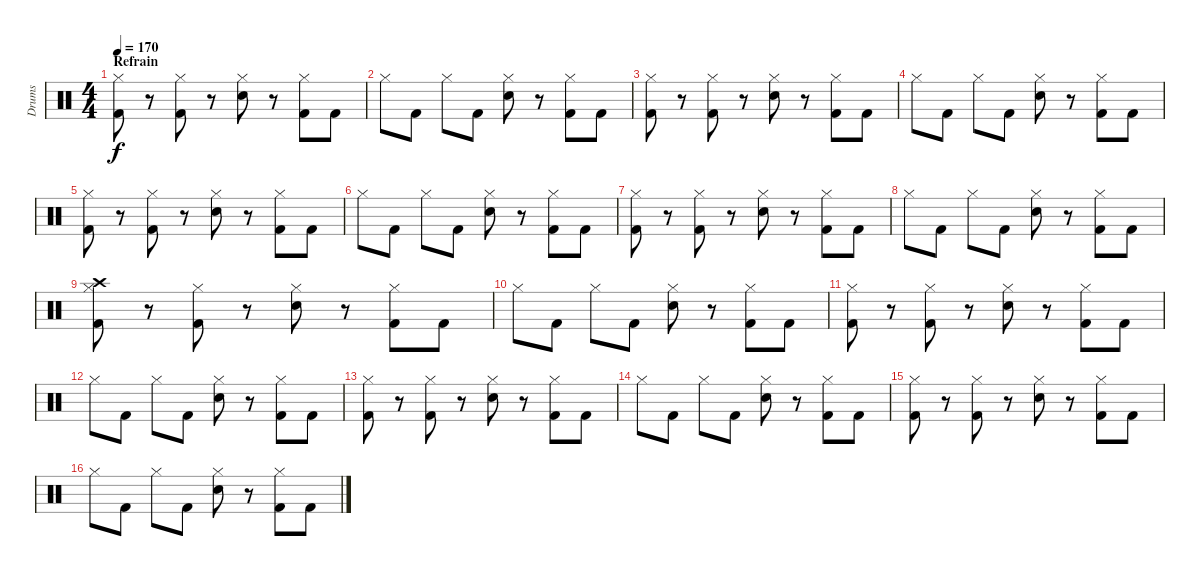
\track ("Drums" "Drums") {instrument percussion}
\staff {score}
\articulation defaults
\ts (4 4)
\section ("" "Refrain")
\tempo 170
\clef neutral
\ks c
("Hi-Hat (closed)" "Kick (hit) 2").8{dy f} r.8 ("Hi-Hat (closed)" "Kick (hit) 2").8 r.8 ("Hi-Hat (closed)" "Electric Snare (hit)").8 r.8 ("Hi-Hat (closed)" "Kick (hit) 2").8 "Kick (hit) 2".8 |
"Hi-Hat (closed)".8 "Kick (hit) 2".8 "Hi-Hat (closed)".8 "Kick (hit) 2".8 ("Hi-Hat (closed)" "Electric Snare (hit)").8 r.8 ("Hi-Hat (closed)" "Kick (hit) 2").8 "Kick (hit) 2".8 |
("Hi-Hat (closed)" "Kick (hit) 2").8 r.8 ("Hi-Hat (closed)" "Kick (hit) 2").8 r.8 ("Hi-Hat (closed)" "Electric Snare (hit)").8 r.8 ("Hi-Hat (closed)" "Kick (hit) 2").8 "Kick (hit) 2".8 |
"Hi-Hat (closed)".8 "Kick (hit) 2".8 "Hi-Hat (closed)".8 "Kick (hit) 2".8 ("Hi-Hat (closed)" "Electric Snare (hit)").8 r.8 ("Hi-Hat (closed)" "Kick (hit) 2").8 "Kick (hit) 2".8 |
("Hi-Hat (closed)" "Kick (hit) 2").8 r.8 ("Hi-Hat (closed)" "Kick (hit) 2").8 r.8 ("Hi-Hat (closed)" "Electric Snare (hit)").8 r.8 ("Hi-Hat (closed)" "Kick (hit) 2").8 "Kick (hit) 2".8 |
"Hi-Hat (closed)".8 "Kick (hit) 2".8 "Hi-Hat (closed)".8 "Kick (hit) 2".8 ("Hi-Hat (closed)" "Electric Snare (hit)").8 r.8 ("Hi-Hat (closed)" "Kick (hit) 2").8 "Kick (hit) 2".8 |
("Hi-Hat (closed)" "Kick (hit) 2").8 r.8 ("Hi-Hat (closed)" "Kick (hit) 2").8 r.8 ("Hi-Hat (closed)" "Electric Snare (hit)").8 r.8 ("Hi-Hat (closed)" "Kick (hit) 2").8 "Kick (hit) 2".8 |
"Hi-Hat (closed)".8 "Kick (hit) 2".8 "Hi-Hat (closed)".8 "Kick (hit) 2".8 ("Hi-Hat (closed)" "Electric Snare (hit)").8 r.8 ("Hi-Hat (closed)" "Kick (hit) 2").8 "Kick (hit) 2".8 |
("Hi-Hat (closed)" "Crash high (hit)" "Kick (hit) 2").8 r.8 ("Hi-Hat (closed)" "Kick (hit) 2").8 r.8 ("Hi-Hat (closed)" "Electric Snare (hit)").8 r.8 ("Hi-Hat (closed)" "Kick (hit) 2").8 "Kick (hit) 2".8 |
"Hi-Hat (closed)".8 "Kick (hit) 2".8 "Hi-Hat (closed)".8 "Kick (hit) 2".8 ("Hi-Hat (closed)" "Electric Snare (hit)").8 r.8 ("Hi-Hat (closed)" "Kick (hit) 2").8 "Kick (hit) 2".8 |
("Hi-Hat (closed)" "Kick (hit) 2").8 r.8 ("Hi-Hat (closed)" "Kick (hit) 2").8 r.8 ("Hi-Hat (closed)" "Electric Snare (hit)").8 r.8 ("Hi-Hat (closed)" "Kick (hit) 2").8 "Kick (hit) 2".8 |
"Hi-Hat (closed)".8 "Kick (hit) 2".8 "Hi-Hat (closed)".8 "Kick (hit) 2".8 ("Hi-Hat (closed)" "Electric Snare (hit)").8 r.8 ("Hi-Hat (closed)" "Kick (hit) 2").8 "Kick (hit) 2".8 |
("Hi-Hat (closed)" "Kick (hit) 2").8 r.8 ("Hi-Hat (closed)" "Kick (hit) 2").8 r.8 ("Hi-Hat (closed)" "Electric Snare (hit)").8 r.8 ("Hi-Hat (closed)" "Kick (hit) 2").8 "Kick (hit) 2".8 |
"Hi-Hat (closed)".8 "Kick (hit) 2".8 "Hi-Hat (closed)".8 "Kick (hit) 2".8 ("Hi-Hat (closed)" "Electric Snare (hit)").8 r.8 ("Hi-Hat (closed)" "Kick (hit) 2").8 "Kick (hit) 2".8 |
("Hi-Hat (closed)" "Kick (hit) 2").8 r.8 ("Hi-Hat (closed)" "Kick (hit) 2").8 r.8 ("Hi-Hat (closed)" "Electric Snare (hit)").8 r.8 ("Hi-Hat (closed)" "Kick (hit) 2").8 "Kick (hit) 2".8 |
"Hi-Hat (closed)".8 "Kick (hit) 2".8 "Hi-Hat (closed)".8 "Kick (hit) 2".8 ("Hi-Hat (closed)" "Electric Snare (hit)").8 r.8 ("Hi-Hat (closed)" "Kick (hit) 2").8 "Kick (hit) 2".8
